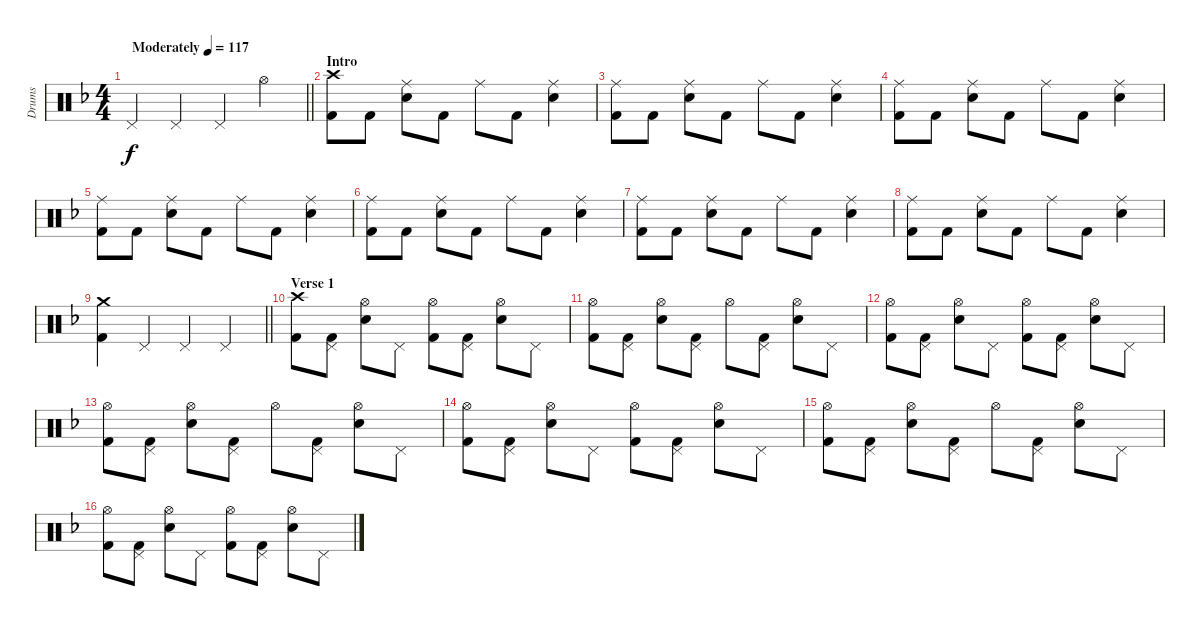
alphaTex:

\track ("Drums" "Drums") {instrument percussion}
\staff {score}
\articulation defaults
\ts (4 4)
\tempo (117 "Moderately")
\clef neutral
\barLineRight lightlight
\ks dminor "Pedal Hi-Hat (hit)".4{dy f} "Pedal Hi-Hat (hit)".4 "Pedal Hi-Hat (hit)".4 "Hi-Hat (open)".4
|
\section ("" "Intro")
("Kick (hit) 2" "Crash high (hit)").8 "Kick (hit) 2".8 ("Snare (hit) 2" "Ride (middle)").8 "Kick (hit) 2".8 "Ride (middle)".8 "Kick (hit) 2".8 ("Snare (hit) 2" "Ride (middle)").4 |
("Kick (hit) 2" "Ride (middle)").8 "Kick (hit) 2".8 ("Snare (hit) 2" "Ride (middle)").8 "Kick (hit) 2".8 "Ride (middle)".8 "Kick (hit) 2".8 ("Snare (hit) 2" "Ride (middle)").4 |
("Kick (hit) 2" "Ride (middle)").8 "Kick (hit) 2".8 ("Snare (hit) 2" "Ride (middle)").8 "Kick (hit) 2".8 "Ride (middle)".8 "Kick (hit) 2".8 ("Snare (hit) 2" "Ride (middle)").4 |
("Kick (hit) 2" "Ride (middle)").8 "Kick (hit) 2".8 ("Snare (hit) 2" "Ride (middle)").8 "Kick (hit) 2".8 "Ride (middle)".8 "Kick (hit) 2".8 ("Snare (hit) 2" "Ride (middle)").4 |
("Kick (hit) 2" "Ride (middle)").8 "Kick (hit) 2".8 ("Snare (hit) 2" "Ride (middle)").8 "Kick (hit) 2".8 "Ride (middle)".8 "Kick (hit) 2".8 ("Snare (hit) 2" "Ride (middle)").4 |
("Kick (hit) 2" "Ride (middle)").8 "Kick (hit) 2".8 ("Snare (hit) 2" "Ride (middle)").8 "Kick (hit) 2".8 "Ride (middle)".8 "Kick (hit) 2".8 ("Snare (hit) 2" "Ride (middle)").4 |
("Kick (hit) 2" "Ride (middle)").8 "Kick (hit) 2".8 ("Snare (hit) 2" "Ride (middle)").8 "Kick (hit) 2".8 "Ride (middle)".8 "Kick (hit) 2".8 ("Snare (hit) 2" "Ride (middle)").4 |
\barLineRight lightlight
("Kick (hit) 2" "Crash medium (hit)").4 "Pedal Hi-Hat (hit)".4 "Pedal Hi-Hat (hit)".4 "Pedal Hi-Hat (hit)".4 |
\section ("" "Verse 1")
("Kick (hit) 2" "Crash high (hit)").8 ("Pedal Hi-Hat (hit)" "Kick (hit) 2").8 ("Hi-Hat (open)" "Snare (hit) 2").8 "Pedal Hi-Hat (hit)".8 ("Hi-Hat (open)" "Kick (hit) 2").8 ("Pedal Hi-Hat (hit)" "Kick (hit) 2").8 ("Hi-Hat (open)" "Snare (hit) 2").8 "Pedal Hi-Hat (hit)".8 |
("Hi-Hat (open)" "Kick (hit) 2").8 ("Pedal Hi-Hat (hit)" "Kick (hit) 2").8 ("Hi-Hat (open)" "Snare (hit) 2").8 ("Pedal Hi-Hat (hit)" "Kick (hit) 2").8 "Hi-Hat (open)".8 ("Pedal Hi-Hat (hit)" "Kick (hit) 2").8 ("Hi-Hat (open)" "Snare (hit) 2").8 "Pedal Hi-Hat (hit)".8 |
("Hi-Hat (open)" "Kick (hit) 2").8 ("Pedal Hi-Hat (hit)" "Kick (hit) 2").8 ("Hi-Hat (open)" "Snare (hit) 2").8 "Pedal Hi-Hat (hit)".8 ("Hi-Hat (open)" "Kick (hit) 2").8 ("Pedal Hi-Hat (hit)" "Kick (hit) 2").8 ("Hi-Hat (open)" "Snare (hit) 2").8 "Pedal Hi-Hat (hit)".8 |
("Hi-Hat (open)" "Kick (hit) 2").8 ("Pedal Hi-Hat (hit)" "Kick (hit) 2").8 ("Hi-Hat (open)" "Snare (hit) 2").8 ("Pedal Hi-Hat (hit)" "Kick (hit) 2").8 "Hi-Hat (open)".8 ("Pedal Hi-Hat (hit)" "Kick (hit) 2").8 ("Hi-Hat (open)" "Snare (hit) 2").8 "Pedal Hi-Hat (hit)".8 |
("Hi-Hat (open)" "Kick (hit) 2").8 ("Pedal Hi-Hat (hit)" "Kick (hit) 2").8 ("Hi-Hat (open)" "Snare (hit) 2").8 "Pedal Hi-Hat (hit)".8 ("Hi-Hat (open)" "Kick (hit) 2").8 ("Pedal Hi-Hat (hit)" "Kick (hit) 2").8 ("Hi-Hat (open)" "Snare (hit) 2").8 "Pedal Hi-Hat (hit)".8 |
("Hi-Hat (open)" "Kick (hit) 2").8 ("Pedal Hi-Hat (hit)" "Kick (hit) 2").8 ("Hi-Hat (open)" "Snare (hit) 2").8 ("Pedal Hi-Hat (hit)" "Kick (hit) 2").8 "Hi-Hat (open)".8 ("Pedal Hi-Hat (hit)" "Kick (hit) 2").8 ("Hi-Hat (open)" "Snare (hit) 2").8 "Pedal Hi-Hat (hit)".8 |
("Hi-Hat (open)" "Kick (hit) 2").8 ("Pedal Hi-Hat (hit)" "Kick (hit) 2").8 ("Hi-Hat (open)" "Snare (hit) 2").8 "Pedal Hi-Hat (hit)".8 ("Hi-Hat (open)" "Kick (hit) 2").8 ("Pedal Hi-Hat (hit)" "Kick (hit) 2").8 ("Hi-Hat (open)" "Snare (hit) 2").8 "Pedal Hi-Hat (hit)".8
